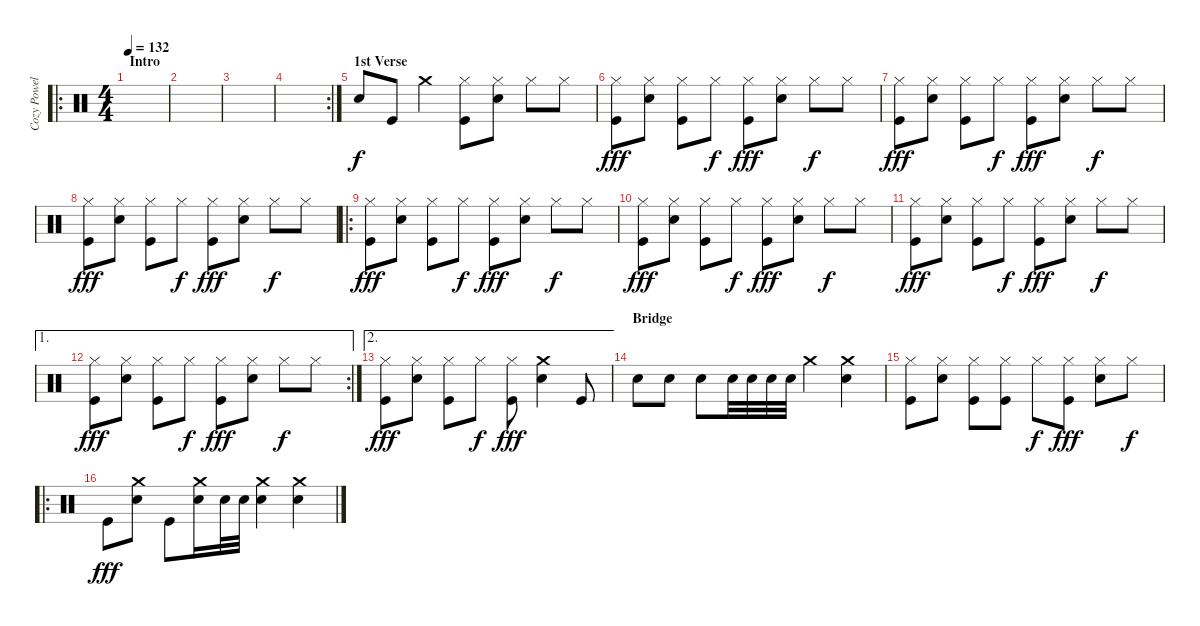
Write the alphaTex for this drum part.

\track ("Cozy Powell" "Cozy Powel") {instrument percussion}
\staff {score}
\articulation defaults
\ro
\ts (4 4)
\section ("" "Intro")
\tempo 132
\clef neutral
\ks c
|
|
|
\rc 2
|
\section ("" "1st Verse")
"Snare (hit) 2".8 "Kick (hit)".8 "Crash medium (hit)".4 ("Kick (hit)" "Hi-Hat (closed)").8 ("Snare (hit) 2" "Hi-Hat (closed)").8 "Hi-Hat (closed)".8{dy f} "Hi-Hat (closed)".8 |
("Kick (hit)" "Hi-Hat (closed)").8{dy fff} ("Snare (hit) 2" "Hi-Hat (closed)").8 ("Kick (hit)" "Hi-Hat (closed)").8 "Hi-Hat (closed)".8{dy f} ("Kick (hit)" "Hi-Hat (closed)").8{dy fff} ("Snare (hit) 2" "Hi-Hat (closed)").8 "Hi-Hat (closed)".8{dy f} "Hi-Hat (closed)".8 |
("Kick (hit)" "Hi-Hat (closed)").8{dy fff} ("Snare (hit) 2" "Hi-Hat (closed)").8 ("Kick (hit)" "Hi-Hat (closed)").8 "Hi-Hat (closed)".8{dy f} ("Kick (hit)" "Hi-Hat (closed)").8{dy fff} ("Snare (hit) 2" "Hi-Hat (closed)").8 "Hi-Hat (closed)".8{dy f} "Hi-Hat (closed)".8 |
("Kick (hit)" "Hi-Hat (closed)").8{dy fff} ("Snare (hit) 2" "Hi-Hat (closed)").8 ("Kick (hit)" "Hi-Hat (closed)").8 "Hi-Hat (closed)".8{dy f} ("Kick (hit)" "Hi-Hat (closed)").8{dy fff} ("Snare (hit) 2" "Hi-Hat (closed)").8 "Hi-Hat (closed)".8{dy f} "Hi-Hat (closed)".8 |
\ro
("Kick (hit)" "Hi-Hat (closed)").8{dy fff} ("Snare (hit) 2" "Hi-Hat (closed)").8 ("Kick (hit)" "Hi-Hat (closed)").8 "Hi-Hat (closed)".8{dy f} ("Kick (hit)" "Hi-Hat (closed)").8{dy fff} ("Snare (hit) 2" "Hi-Hat (closed)").8 "Hi-Hat (closed)".8{dy f} "Hi-Hat (closed)".8 |
("Kick (hit)" "Hi-Hat (closed)").8{dy fff} ("Snare (hit) 2" "Hi-Hat (closed)").8 ("Kick (hit)" "Hi-Hat (closed)").8 "Hi-Hat (closed)".8{dy f} ("Kick (hit)" "Hi-Hat (closed)").8{dy fff} ("Snare (hit) 2" "Hi-Hat (closed)").8 "Hi-Hat (closed)".8{dy f} "Hi-Hat (closed)".8 |
("Kick (hit)" "Hi-Hat (closed)").8{dy fff} ("Snare (hit) 2" "Hi-Hat (closed)").8 ("Kick (hit)" "Hi-Hat (closed)").8 "Hi-Hat (closed)".8{dy f} ("Kick (hit)" "Hi-Hat (closed)").8{dy fff} ("Snare (hit) 2" "Hi-Hat (closed)").8 "Hi-Hat (closed)".8{dy f} "Hi-Hat (closed)".8 |
\ae 1
\rc 2
("Kick (hit)" "Hi-Hat (closed)").8{dy fff} ("Snare (hit) 2" "Hi-Hat (closed)").8 ("Kick (hit)" "Hi-Hat (closed)").8 "Hi-Hat (closed)".8{dy f} ("Kick (hit)" "Hi-Hat (closed)").8{dy fff} ("Snare (hit) 2" "Hi-Hat (closed)").8 "Hi-Hat (closed)".8{dy f} "Hi-Hat (closed)".8 |
\ae 2
("Kick (hit)" "Hi-Hat (closed)").8{dy fff} ("Snare (hit) 2" "Hi-Hat (closed)").8 ("Kick (hit)" "Hi-Hat (closed)").8 "Hi-Hat (closed)".8{dy f} ("Kick (hit)" "Hi-Hat (closed)").8{dy fff} ("Snare (hit) 2" "Crash medium (hit)").4 "Kick (hit)".8 |
\section ("" "Bridge")
"Snare (hit) 2".8 "Snare (hit) 2".8 "Snare (hit) 2".8 "Snare (hit) 2".32 "Snare (hit) 2".32 "Snare (hit) 2".32 "Snare (hit) 2".32 "Crash medium (hit)".4 ("Snare (hit) 2" "Crash medium (hit)").4 |
("Kick (hit)" "Hi-Hat (closed)").8 ("Snare (hit) 2" "Hi-Hat (closed)").8 ("Kick (hit)" "Hi-Hat (closed)").8 ("Kick (hit)" "Hi-Hat (closed)").8 "Hi-Hat (closed)".8{dy f} ("Kick (hit)" "Hi-Hat (closed)").8{dy fff} ("Snare (hit) 2" "Hi-Hat (closed)").8 "Hi-Hat (closed)".8{dy f} |
\ro "Kick (hit)".8{dy fff}
("Snare (hit) 2" "Crash medium (hit)").8 "Kick (hit)".8 ("Snare (hit) 2" "Crash medium (hit)").16 "Snare (hit) 2".32 "Snare (hit) 2".32 ("Snare (hit) 2" "Crash medium (hit)").4 ("Snare (hit) 2" "Crash medium (hit)").4
